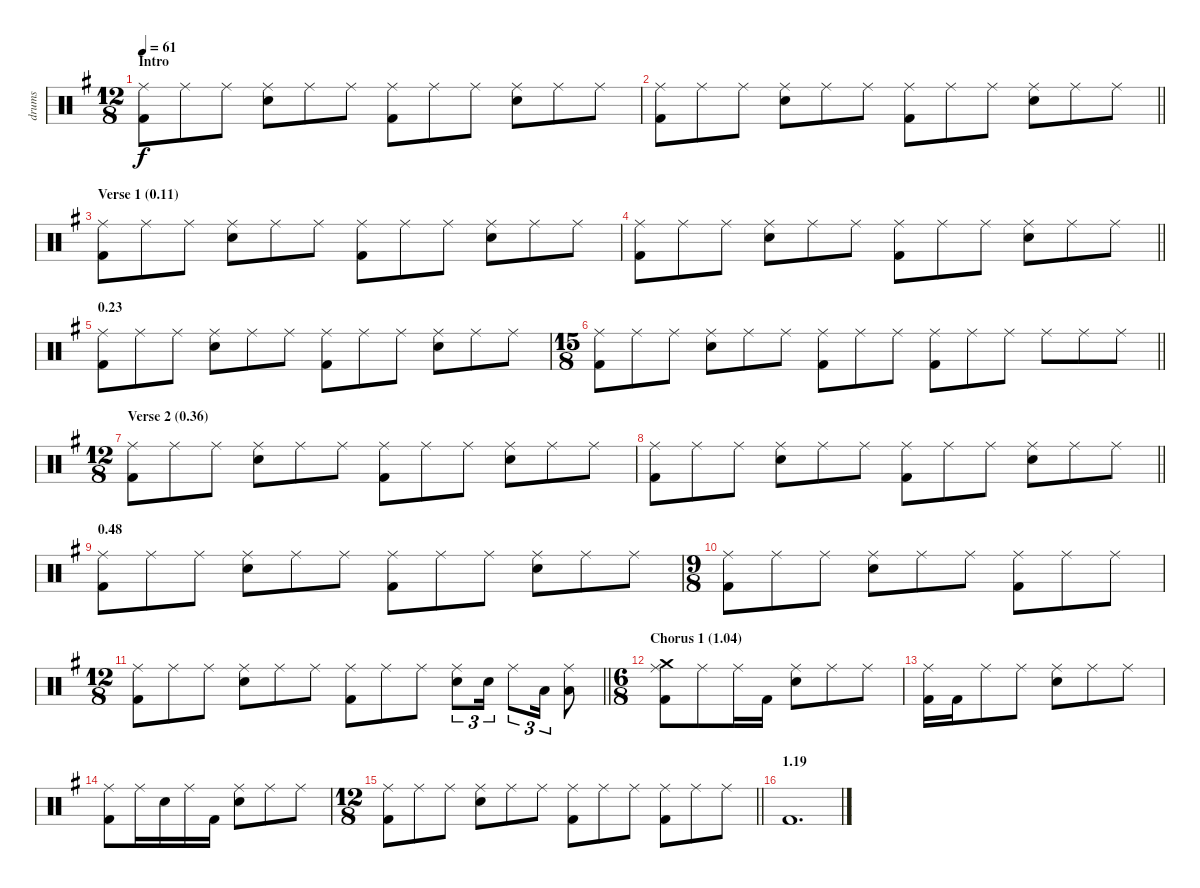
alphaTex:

\track ("drums" "drums") {instrument percussion}
\staff {score}
\articulation defaults
\ts (12 8)
\section ("" "Intro")
\tempo 61
\clef neutral
\ks g
("Ride (middle)" "Kick (hit) 2").8{dy f} "Ride (middle)".8 "Ride (middle)".8 ("Ride (middle)" "Electric Snare (hit)").8 "Ride (middle)".8 "Ride (middle)".8 ("Ride (middle)" "Kick (hit) 2").8 "Ride (middle)".8 "Ride (middle)".8 ("Ride (middle)" "Electric Snare (hit)").8 "Ride (middle)".8 "Ride (middle)".8 |
\barLineRight lightlight
("Ride (middle)" "Kick (hit) 2").8 "Ride (middle)".8 "Ride (middle)".8 ("Ride (middle)" "Electric Snare (hit)").8 "Ride (middle)".8 "Ride (middle)".8 ("Ride (middle)" "Kick (hit) 2").8 "Ride (middle)".8 "Ride (middle)".8 ("Ride (middle)" "Electric Snare (hit)").8 "Ride (middle)".8 "Ride (middle)".8 |
\section ("" "Verse 1 (0.11)")
("Ride (middle)" "Kick (hit) 2").8 "Ride (middle)".8 "Ride (middle)".8 ("Ride (middle)" "Electric Snare (hit)").8 "Ride (middle)".8 "Ride (middle)".8 ("Ride (middle)" "Kick (hit) 2").8 "Ride (middle)".8 "Ride (middle)".8 ("Ride (middle)" "Electric Snare (hit)").8 "Ride (middle)".8 "Ride (middle)".8 |
\barLineRight lightlight
("Ride (middle)" "Kick (hit) 2").8 "Ride (middle)".8 "Ride (middle)".8 ("Ride (middle)" "Electric Snare (hit)").8 "Ride (middle)".8 "Ride (middle)".8 ("Ride (middle)" "Kick (hit) 2").8 "Ride (middle)".8 "Ride (middle)".8 ("Ride (middle)" "Electric Snare (hit)").8 "Ride (middle)".8 "Ride (middle)".8 |
\section ("" "0.23")
("Ride (middle)" "Kick (hit) 2").8 "Ride (middle)".8 "Ride (middle)".8 ("Ride (middle)" "Electric Snare (hit)").8 "Ride (middle)".8 "Ride (middle)".8 ("Ride (middle)" "Kick (hit) 2").8 "Ride (middle)".8 "Ride (middle)".8 ("Ride (middle)" "Electric Snare (hit)").8 "Ride (middle)".8 "Ride (middle)".8 |
\ts (15 8)
\barLineRight lightlight
("Ride (middle)" "Kick (hit) 2").8 "Ride (middle)".8 "Ride (middle)".8 ("Ride (middle)" "Electric Snare (hit)").8 "Ride (middle)".8 "Ride (middle)".8 ("Ride (middle)" "Kick (hit) 2").8 "Ride (middle)".8 "Ride (middle)".8 ("Ride (middle)" "Kick (hit) 2").8 "Ride (middle)".8 "Ride (middle)".8 "Ride (middle)".8 "Ride (middle)".8 "Ride (middle)".8 |
\ts (12 8)
\section ("" "Verse 2 (0.36)")
("Ride (middle)" "Kick (hit) 2").8 "Ride (middle)".8 "Ride (middle)".8 ("Ride (middle)" "Electric Snare (hit)").8 "Ride (middle)".8 "Ride (middle)".8 ("Ride (middle)" "Kick (hit) 2").8 "Ride (middle)".8 "Ride (middle)".8 ("Ride (middle)" "Electric Snare (hit)").8 "Ride (middle)".8 "Ride (middle)".8 |
\barLineRight lightlight
("Ride (middle)" "Kick (hit) 2").8 "Ride (middle)".8 "Ride (middle)".8 ("Ride (middle)" "Electric Snare (hit)").8 "Ride (middle)".8 "Ride (middle)".8 ("Ride (middle)" "Kick (hit) 2").8 "Ride (middle)".8 "Ride (middle)".8 ("Ride (middle)" "Electric Snare (hit)").8 "Ride (middle)".8 "Ride (middle)".8 |
\section ("" "0.48")
("Ride (middle)" "Kick (hit) 2").8 "Ride (middle)".8 "Ride (middle)".8 ("Ride (middle)" "Electric Snare (hit)").8 "Ride (middle)".8 "Ride (middle)".8 ("Ride (middle)" "Kick (hit) 2").8 "Ride (middle)".8 "Ride (middle)".8 ("Ride (middle)" "Electric Snare (hit)").8 "Ride (middle)".8 "Ride (middle)".8 |
\ts (9 8)
("Ride (middle)" "Kick (hit) 2").8 "Ride (middle)".8 "Ride (middle)".8 ("Ride (middle)" "Electric Snare (hit)").8 "Ride (middle)".8 "Ride (middle)".8 ("Ride (middle)" "Kick (hit) 2").8 "Ride (middle)".8 "Ride (middle)".8 |
\ts (12 8)
\barLineRight lightlight
("Ride (middle)" "Kick (hit) 2").8 "Ride (middle)".8 "Ride (middle)".8 ("Ride (middle)" "Electric Snare (hit)").8 "Ride (middle)".8 "Ride (middle)".8 ("Ride (middle)" "Kick (hit) 2").8 "Ride (middle)".8 "Ride (middle)".8 ("Ride (middle)" "Electric Snare (hit)").8{tu (3 2)} "Electric Snare (hit)".16{tu (3 2)} "Ride (middle)".8{tu (3 2)} "Low Tom (hit)".16{tu (3 2)} ("Ride (middle)" "Low Tom (hit)").8 |
\ts (6 8)
\section ("" "Chorus 1 (1.04)")
("Ride (middle)" "Crash medium (hit)" "Kick (hit) 2").8 "Ride (middle)".8 "Ride (middle)".16 "Kick (hit) 2".16 ("Ride (middle)" "Electric Snare (hit)").8 "Ride (middle)".8 "Ride (middle)".8 |
("Ride (middle)" "Kick (hit) 2").16 "Kick (hit) 2".16 "Ride (middle)".8 "Ride (middle)".8 ("Ride (middle)" "Electric Snare (hit)").8 "Ride (middle)".8 "Ride (middle)".8 |
("Ride (middle)" "Kick (hit) 2").8 "Ride (middle)".16 "Electric Snare (hit)".16 "Ride (middle)".16 "Kick (hit) 2".16 ("Ride (middle)" "Electric Snare (hit)").8 "Ride (middle)".8 "Ride (middle)".8 |
\ts (12 8)
\barLineRight lightlight
("Ride (middle)" "Kick (hit) 2").8 "Ride (middle)".8 "Ride (middle)".8 ("Ride (middle)" "Electric Snare (hit)").8 "Ride (middle)".8 "Ride (middle)".8 ("Ride (middle)" "Kick (hit) 2").8 "Ride (middle)".8 "Ride (middle)".8 ("Ride (middle)" "Kick (hit) 2").8 "Ride (middle)".8 "Ride (middle)".8 |
\section ("" "1.19")
"Kick (hit) 2".1{d}
